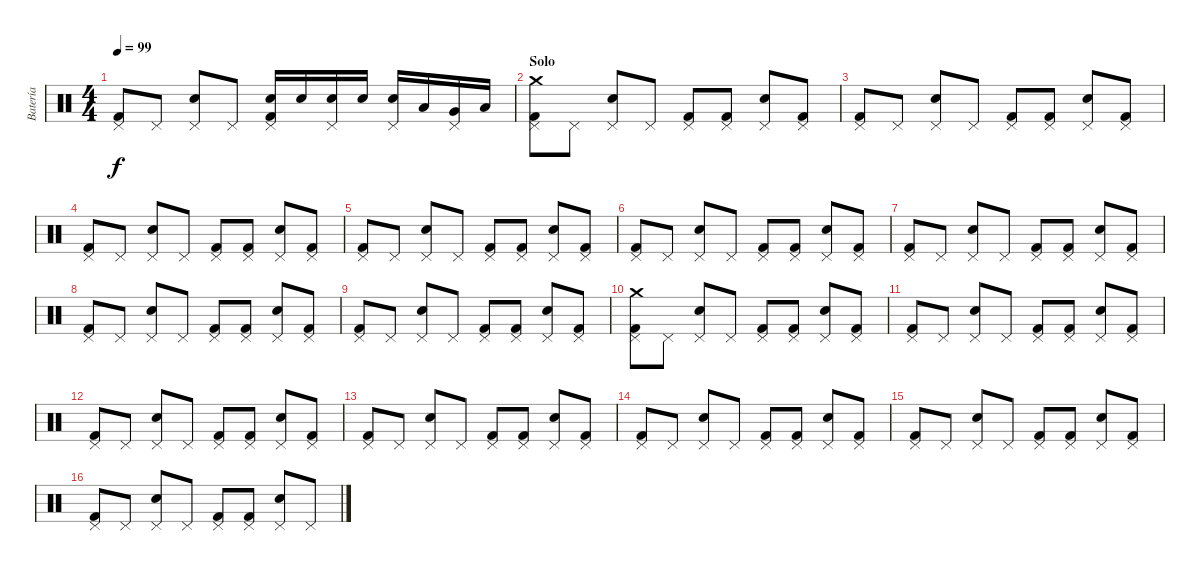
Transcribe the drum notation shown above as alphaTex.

\track ("Batería" "Batería") {instrument percussion}
\staff {score}
\articulation defaults
\ts (4 4)
\tempo 99
\clef neutral
\ks c
("Pedal Hi-Hat (hit)" "Kick (hit) 2").8{dy f} "Pedal Hi-Hat (hit)".8 ("Pedal Hi-Hat (hit)" "Snare (hit) 2").8 "Pedal Hi-Hat (hit)".8 ("Pedal Hi-Hat (hit)" "Snare (hit) 2" "Kick (hit) 2").16 "Snare (hit) 2".16 ("Pedal Hi-Hat (hit)" "Snare (hit) 2").16 "Snare (hit) 2".16 ("Pedal Hi-Hat (hit)" "Snare (hit) 2").16 "Low Tom (hit)".16 ("Pedal Hi-Hat (hit)" "Very Low Tom (hit)").16 "Low Floor Tom (hit)".16 |
\section ("" "Solo")
("Pedal Hi-Hat (hit)" "Crash medium (hit)" "Kick (hit) 2").8 "Pedal Hi-Hat (hit)".8 ("Pedal Hi-Hat (hit)" "Snare (hit) 2").8 "Pedal Hi-Hat (hit)".8 ("Pedal Hi-Hat (hit)" "Kick (hit) 2").8 ("Pedal Hi-Hat (hit)" "Kick (hit) 2").8 ("Pedal Hi-Hat (hit)" "Snare (hit) 2").8 ("Pedal Hi-Hat (hit)" "Kick (hit) 2").8 |
("Pedal Hi-Hat (hit)" "Kick (hit) 2").8 "Pedal Hi-Hat (hit)".8 ("Pedal Hi-Hat (hit)" "Snare (hit) 2").8 "Pedal Hi-Hat (hit)".8 ("Pedal Hi-Hat (hit)" "Kick (hit) 2").8 ("Pedal Hi-Hat (hit)" "Kick (hit) 2").8 ("Pedal Hi-Hat (hit)" "Snare (hit) 2").8 ("Pedal Hi-Hat (hit)" "Kick (hit) 2").8 |
("Pedal Hi-Hat (hit)" "Kick (hit) 2").8 "Pedal Hi-Hat (hit)".8 ("Pedal Hi-Hat (hit)" "Snare (hit) 2").8 "Pedal Hi-Hat (hit)".8 ("Pedal Hi-Hat (hit)" "Kick (hit) 2").8 ("Pedal Hi-Hat (hit)" "Kick (hit) 2").8 ("Pedal Hi-Hat (hit)" "Snare (hit) 2").8 ("Pedal Hi-Hat (hit)" "Kick (hit) 2").8 |
("Pedal Hi-Hat (hit)" "Kick (hit) 2").8 "Pedal Hi-Hat (hit)".8 ("Pedal Hi-Hat (hit)" "Snare (hit) 2").8 "Pedal Hi-Hat (hit)".8 ("Pedal Hi-Hat (hit)" "Kick (hit) 2").8 ("Pedal Hi-Hat (hit)" "Kick (hit) 2").8 ("Pedal Hi-Hat (hit)" "Snare (hit) 2").8 ("Pedal Hi-Hat (hit)" "Kick (hit) 2").8 |
("Kick (hit) 2" "Pedal Hi-Hat (hit)").8 "Pedal Hi-Hat (hit)".8 ("Snare (hit) 2" "Pedal Hi-Hat (hit)").8 "Pedal Hi-Hat (hit)".8 ("Kick (hit) 2" "Pedal Hi-Hat (hit)").8 ("Kick (hit) 2" "Pedal Hi-Hat (hit)").8 ("Snare (hit) 2" "Pedal Hi-Hat (hit)").8 ("Kick (hit) 2" "Pedal Hi-Hat (hit)").8 |
("Pedal Hi-Hat (hit)" "Kick (hit) 2").8 "Pedal Hi-Hat (hit)".8 ("Pedal Hi-Hat (hit)" "Snare (hit) 2").8 "Pedal Hi-Hat (hit)".8 ("Pedal Hi-Hat (hit)" "Kick (hit) 2").8 ("Pedal Hi-Hat (hit)" "Kick (hit) 2").8 ("Pedal Hi-Hat (hit)" "Snare (hit) 2").8 ("Pedal Hi-Hat (hit)" "Kick (hit) 2").8 |
("Pedal Hi-Hat (hit)" "Kick (hit) 2").8 "Pedal Hi-Hat (hit)".8 ("Pedal Hi-Hat (hit)" "Snare (hit) 2").8 "Pedal Hi-Hat (hit)".8 ("Pedal Hi-Hat (hit)" "Kick (hit) 2").8 ("Pedal Hi-Hat (hit)" "Kick (hit) 2").8 ("Pedal Hi-Hat (hit)" "Snare (hit) 2").8 ("Pedal Hi-Hat (hit)" "Kick (hit) 2").8 |
("Kick (hit) 2" "Pedal Hi-Hat (hit)").8 "Pedal Hi-Hat (hit)".8 ("Snare (hit) 2" "Pedal Hi-Hat (hit)").8 "Pedal Hi-Hat (hit)".8 ("Kick (hit) 2" "Pedal Hi-Hat (hit)").8 ("Kick (hit) 2" "Pedal Hi-Hat (hit)").8 ("Snare (hit) 2" "Pedal Hi-Hat (hit)").8 ("Kick (hit) 2" "Pedal Hi-Hat (hit)").8 |
("Pedal Hi-Hat (hit)" "Crash medium (hit)" "Kick (hit) 2").8 "Pedal Hi-Hat (hit)".8 ("Pedal Hi-Hat (hit)" "Snare (hit) 2").8 "Pedal Hi-Hat (hit)".8 ("Pedal Hi-Hat (hit)" "Kick (hit) 2").8 ("Pedal Hi-Hat (hit)" "Kick (hit) 2").8 ("Pedal Hi-Hat (hit)" "Snare (hit) 2").8 ("Pedal Hi-Hat (hit)" "Kick (hit) 2").8 |
("Kick (hit) 2" "Pedal Hi-Hat (hit)").8 "Pedal Hi-Hat (hit)".8 ("Snare (hit) 2" "Pedal Hi-Hat (hit)").8 "Pedal Hi-Hat (hit)".8 ("Kick (hit) 2" "Pedal Hi-Hat (hit)").8 ("Kick (hit) 2" "Pedal Hi-Hat (hit)").8 ("Snare (hit) 2" "Pedal Hi-Hat (hit)").8 ("Kick (hit) 2" "Pedal Hi-Hat (hit)").8 |
("Kick (hit) 2" "Pedal Hi-Hat (hit)").8 "Pedal Hi-Hat (hit)".8 ("Snare (hit) 2" "Pedal Hi-Hat (hit)").8 "Pedal Hi-Hat (hit)".8 ("Kick (hit) 2" "Pedal Hi-Hat (hit)").8 ("Kick (hit) 2" "Pedal Hi-Hat (hit)").8 ("Snare (hit) 2" "Pedal Hi-Hat (hit)").8 ("Kick (hit) 2" "Pedal Hi-Hat (hit)").8 |
("Pedal Hi-Hat (hit)" "Kick (hit) 2").8 "Pedal Hi-Hat (hit)".8 ("Pedal Hi-Hat (hit)" "Snare (hit) 2").8 "Pedal Hi-Hat (hit)".8 ("Pedal Hi-Hat (hit)" "Kick (hit) 2").8 ("Pedal Hi-Hat (hit)" "Kick (hit) 2").8 ("Pedal Hi-Hat (hit)" "Snare (hit) 2").8 ("Pedal Hi-Hat (hit)" "Kick (hit) 2").8 |
("Pedal Hi-Hat (hit)" "Kick (hit) 2").8 "Pedal Hi-Hat (hit)".8 ("Pedal Hi-Hat (hit)" "Snare (hit) 2").8 "Pedal Hi-Hat (hit)".8 ("Pedal Hi-Hat (hit)" "Kick (hit) 2").8 ("Pedal Hi-Hat (hit)" "Kick (hit) 2").8 ("Pedal Hi-Hat (hit)" "Snare (hit) 2").8 ("Pedal Hi-Hat (hit)" "Kick (hit) 2").8 |
("Kick (hit) 2" "Pedal Hi-Hat (hit)").8 "Pedal Hi-Hat (hit)".8 ("Snare (hit) 2" "Pedal Hi-Hat (hit)").8 "Pedal Hi-Hat (hit)".8 ("Kick (hit) 2" "Pedal Hi-Hat (hit)").8 ("Kick (hit) 2" "Pedal Hi-Hat (hit)").8 ("Snare (hit) 2" "Pedal Hi-Hat (hit)").8 ("Kick (hit) 2" "Pedal Hi-Hat (hit)").8 |
("Kick (hit) 2" "Pedal Hi-Hat (hit)").8 "Pedal Hi-Hat (hit)".8 ("Snare (hit) 2" "Pedal Hi-Hat (hit)").8 "Pedal Hi-Hat (hit)".8 ("Kick (hit) 2" "Pedal Hi-Hat (hit)").8 ("Kick (hit) 2" "Pedal Hi-Hat (hit)").8 ("Snare (hit) 2" "Pedal Hi-Hat (hit)").8 "Pedal Hi-Hat (hit)".8
